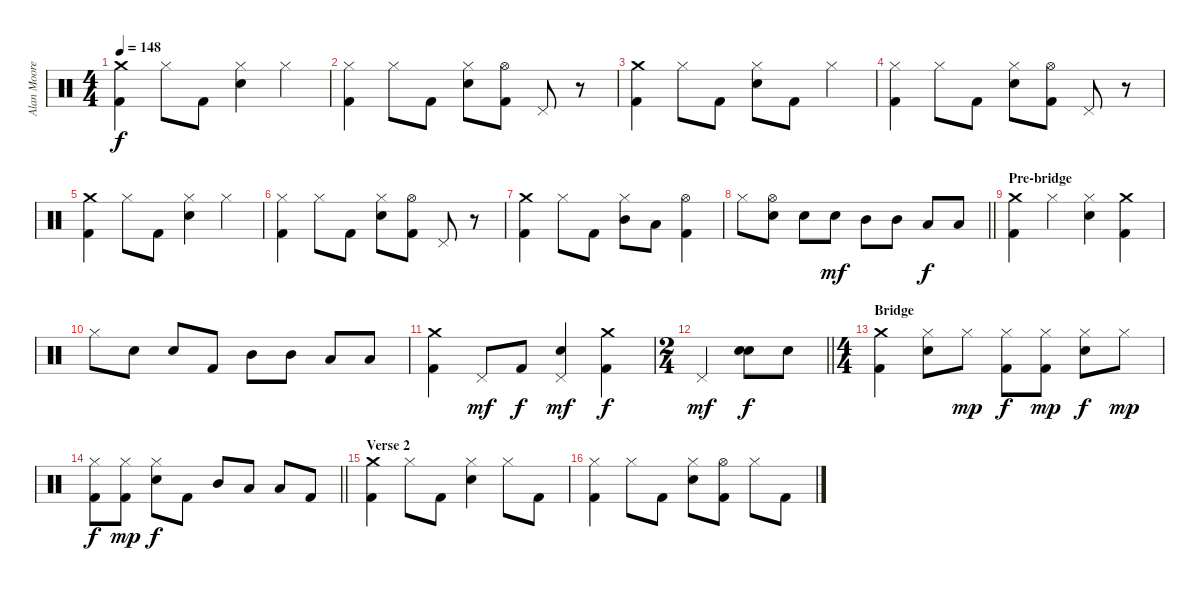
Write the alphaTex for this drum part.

\track ("Alan Moore" "Alan Moore") {instrument percussion}
\staff {score}
\articulation defaults
\ts (4 4)
\tempo 148
\clef neutral
\ks c
("Crash medium (hit)" "Kick (hit) 2").4{dy f} "Hi-Hat (closed)".8 "Kick (hit) 2".8 ("Hi-Hat (closed)" "Snare (hit) 2").4 "Hi-Hat (closed)".4 |
("Hi-Hat (closed)" "Kick (hit) 2").4 "Hi-Hat (closed)".8 "Kick (hit) 2".8 ("Hi-Hat (closed)" "Snare (hit) 2").8 ("Hi-Hat (open)" "Kick (hit) 2").8 "Pedal Hi-Hat (hit)".8 r.8 |
("Kick (hit) 2" "Crash medium (hit)").4 "Hi-Hat (closed)".8 "Kick (hit) 2".8 ("Snare (hit) 2" "Hi-Hat (closed)").8 "Kick (hit) 2".8 "Hi-Hat (closed)".4 |
("Kick (hit) 2" "Hi-Hat (closed)").4 "Hi-Hat (closed)".8 "Kick (hit) 2".8 ("Snare (hit) 2" "Hi-Hat (closed)").8 ("Kick (hit) 2" "Hi-Hat (open)").8 "Pedal Hi-Hat (hit)".8 r.8 |
("Crash medium (hit)" "Kick (hit) 2").4 "Hi-Hat (closed)".8 "Kick (hit) 2".8 ("Hi-Hat (closed)" "Snare (hit) 2").4 "Hi-Hat (closed)".4 |
("Hi-Hat (closed)" "Kick (hit) 2").4 "Hi-Hat (closed)".8 "Kick (hit) 2".8 ("Hi-Hat (closed)" "Snare (hit) 2").8 ("Hi-Hat (open)" "Kick (hit) 2").8 "Pedal Hi-Hat (hit)".8 r.8 |
("Crash medium (hit)" "Kick (hit) 2").4 "Hi-Hat (closed)".8 "Kick (hit) 2".8 ("Hi-Hat (closed)" "Mid Tom (hit)").8 "Low Tom (hit)".8 ("Kick (hit) 2" "Hi-Hat (open)").4 |
\barLineRight lightlight "Hi-Hat (closed)".8
("Hi-Hat (open)" "Snare (hit) 2").8 "Snare (hit) 2".8 "Snare (hit) 2".8{dy mf} "Mid Tom (hit)".8 "Mid Tom (hit)".8 "Low Tom (hit)".8{dy f} "Low Tom (hit)".8 |
\section ("" "Pre-bridge")
("Kick (hit) 2" "Crash medium (hit)").4 "Hi-Hat (closed)".4 ("Hi-Hat (closed)" "Snare (hit) 2").4 ("Crash medium (hit)" "Kick (hit) 2").4 |
"Hi-Hat (closed)".8 "Snare (hit) 2".8 "Snare (hit) 2".8 "Kick (hit) 2".8 "Mid Tom (hit)".8 "Mid Tom (hit)".8 "Low Tom (hit)".8 "Low Tom (hit)".8 |
("Crash medium (hit)" "Kick (hit) 2").4 "Pedal Hi-Hat (hit)".8{dy mf} "Kick (hit) 2".8{dy f} ("Pedal Hi-Hat (hit)" "Snare (hit) 2").4{dy mf} ("Crash medium (hit)" "Kick (hit) 2").4{dy f} |
\ts (2 4)
\barLineRight lightlight "Pedal Hi-Hat (hit)".4{dy mf}
("Snare (hit) 2" "Snare (hit) 2").8{dy f} "Snare (hit) 2".8 |
\ts (4 4)
\section ("" "Bridge")
("Crash medium (hit)" "Kick (hit) 2").4 ("Hi-Hat (closed)" "Snare (hit) 2").8 "Hi-Hat (closed)".8{dy mp} ("Hi-Hat (closed)" "Kick (hit) 2").8{dy f} ("Hi-Hat (closed)" "Kick (hit) 2").8{dy mp} ("Hi-Hat (closed)" "Snare (hit) 2").8{dy f} "Hi-Hat (closed)".8{dy mp} |
\barLineRight lightlight
("Hi-Hat (closed)" "Kick (hit) 2").8{dy f} ("Hi-Hat (closed)" "Kick (hit) 2").8{dy mp} ("Snare (hit) 2" "Hi-Hat (closed)").8{dy f} "Kick (hit) 2".8 "Mid Tom (hit)".8 "Low Tom (hit)".8 "Low Floor Tom (hit)".8 "Kick (hit) 2".8 |
\section ("" "Verse 2")
("Crash medium (hit)" "Kick (hit) 2").4 "Hi-Hat (closed)".8 "Kick (hit) 2".8 ("Hi-Hat (closed)" "Snare (hit) 2").4 "Hi-Hat (closed)".8 "Kick (hit) 2".8 |
("Hi-Hat (closed)" "Kick (hit) 2").4 "Hi-Hat (closed)".8 "Kick (hit) 2".8 ("Hi-Hat (closed)" "Snare (hit) 2").8 ("Hi-Hat (open)" "Kick (hit) 2").8 "Hi-Hat (closed)".8 "Kick (hit) 2".8
